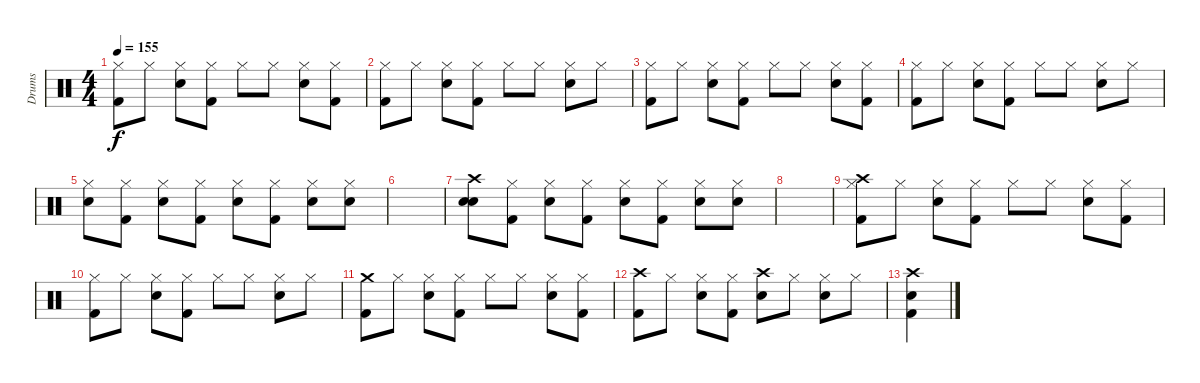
\track ("Drums" "Drums") {instrument percussion}
\staff {score}
\articulation defaults
\ts (4 4)
\tempo 155
\clef neutral
\ks c
("Hi-Hat (closed)" "Kick (hit) 2").8{dy f} "Hi-Hat (closed)".8 ("Hi-Hat (closed)" "Snare (hit) 2").8 ("Hi-Hat (closed)" "Kick (hit) 2").8 "Hi-Hat (closed)".8 "Hi-Hat (closed)".8 ("Hi-Hat (closed)" "Snare (hit) 2").8 ("Hi-Hat (closed)" "Kick (hit) 2").8 |
("Hi-Hat (closed)" "Kick (hit) 2").8 "Hi-Hat (closed)".8 ("Hi-Hat (closed)" "Snare (hit) 2").8 ("Hi-Hat (closed)" "Kick (hit) 2").8 "Hi-Hat (closed)".8 "Hi-Hat (closed)".8 ("Hi-Hat (closed)" "Snare (hit) 2").8 "Hi-Hat (closed)".8 |
("Hi-Hat (closed)" "Kick (hit) 2").8 "Hi-Hat (closed)".8 ("Hi-Hat (closed)" "Snare (hit) 2").8 ("Hi-Hat (closed)" "Kick (hit) 2").8 "Hi-Hat (closed)".8 "Hi-Hat (closed)".8 ("Hi-Hat (closed)" "Snare (hit) 2").8 ("Hi-Hat (closed)" "Kick (hit) 2").8 |
("Hi-Hat (closed)" "Kick (hit) 2").8 "Hi-Hat (closed)".8 ("Hi-Hat (closed)" "Snare (hit) 2").8 ("Hi-Hat (closed)" "Kick (hit) 2").8 "Hi-Hat (closed)".8 "Hi-Hat (closed)".8 ("Hi-Hat (closed)" "Snare (hit) 2").8 "Hi-Hat (closed)".8 |
("Hi-Hat (closed)" "Snare (hit) 2").8 ("Hi-Hat (closed)" "Kick (hit) 2").8 ("Hi-Hat (closed)" "Snare (hit) 2").8 ("Hi-Hat (closed)" "Kick (hit) 2").8 ("Hi-Hat (closed)" "Snare (hit) 2").8 ("Hi-Hat (closed)" "Kick (hit) 2").8 ("Hi-Hat (closed)" "Snare (hit) 2").8 ("Hi-Hat (closed)" "Snare (hit) 2").8 |
|
("Snare (hit)" "Snare (hit) 2" "Crash high (hit)").8 ("Hi-Hat (closed)" "Kick (hit) 2").8 ("Hi-Hat (closed)" "Snare (hit) 2").8 ("Hi-Hat (closed)" "Kick (hit) 2").8 ("Hi-Hat (closed)" "Snare (hit) 2").8 ("Hi-Hat (closed)" "Kick (hit) 2").8 ("Hi-Hat (closed)" "Snare (hit) 2").8 ("Hi-Hat (closed)" "Snare (hit) 2").8 |
|
("Hi-Hat (closed)" "Kick (hit) 2" "Crash high (hit)").8 "Hi-Hat (closed)".8 ("Hi-Hat (closed)" "Snare (hit) 2").8 ("Hi-Hat (closed)" "Kick (hit) 2").8 "Hi-Hat (closed)".8 "Hi-Hat (closed)".8 ("Hi-Hat (closed)" "Snare (hit) 2").8 ("Hi-Hat (closed)" "Kick (hit) 2").8 |
("Hi-Hat (closed)" "Kick (hit) 2").8 "Hi-Hat (closed)".8 ("Hi-Hat (closed)" "Snare (hit) 2").8 ("Hi-Hat (closed)" "Kick (hit) 2").8 "Hi-Hat (closed)".8 "Hi-Hat (closed)".8 ("Hi-Hat (closed)" "Snare (hit) 2").8 "Hi-Hat (closed)".8 |
("Crash medium (hit)" "Kick (hit) 2").8 "Hi-Hat (closed)".8 ("Hi-Hat (closed)" "Snare (hit) 2").8 ("Hi-Hat (closed)" "Kick (hit) 2").8 "Hi-Hat (closed)".8 "Hi-Hat (closed)".8 ("Hi-Hat (closed)" "Snare (hit) 2").8 ("Hi-Hat (closed)" "Kick (hit) 2").8 |
("Crash high (hit)" "Kick (hit) 2").8 "Hi-Hat (closed)".8 ("Hi-Hat (closed)" "Snare (hit) 2").8 ("Hi-Hat (closed)" "Kick (hit) 2").8 ("Snare (hit)" "Crash high (hit)").8 "Hi-Hat (closed)".8 ("Hi-Hat (closed)" "Snare (hit) 2").8 "Hi-Hat (closed)".8 |
("Crash high (hit)" "Kick (hit) 2" "Snare (hit)").4
